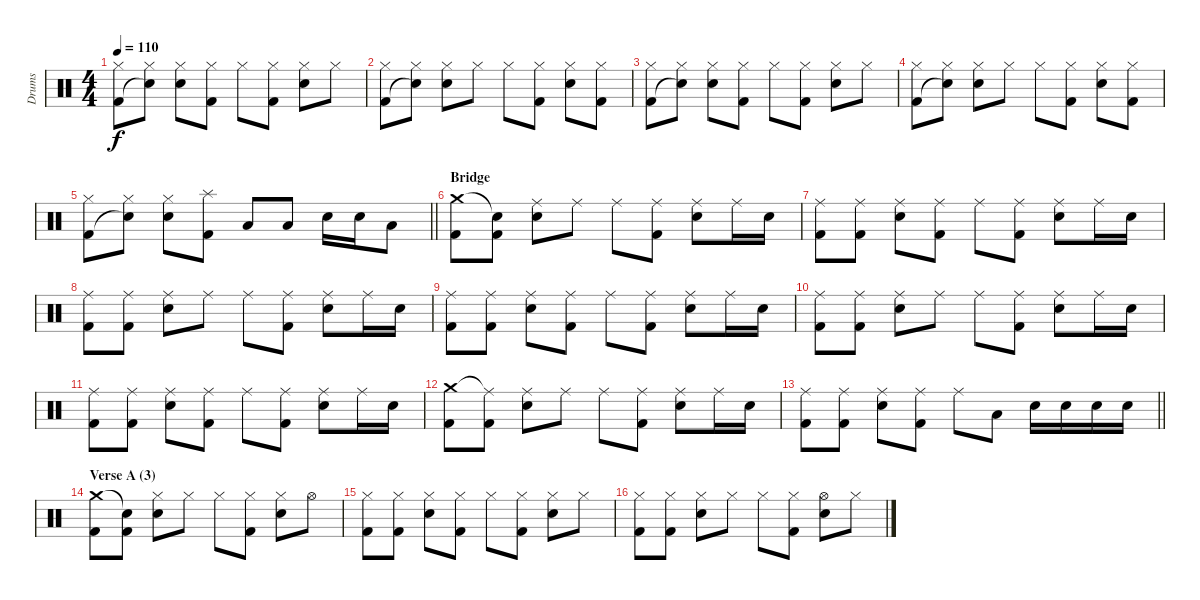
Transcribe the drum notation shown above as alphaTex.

\track ("Drums" "Drums") {instrument percussion}
\staff {score}
\articulation defaults
\ts (4 4)
\tempo 110
\clef neutral
\ks c
("Hi-Hat (closed)" "Kick (hit) 2").8{dy f} ("Hi-Hat (closed)" "Snare (hit)"{t}).8 ("Hi-Hat (closed)" "Electric Snare (hit)").8 ("Hi-Hat (closed)" "Kick (hit) 2").8 "Hi-Hat (closed)".8 ("Hi-Hat (closed)" "Kick (hit) 2").8 ("Hi-Hat (closed)" "Electric Snare (hit)").8 "Hi-Hat (closed)".8 |
("Hi-Hat (closed)" "Kick (hit) 2").8 ("Hi-Hat (closed)" "Snare (hit)"{t}).8 ("Hi-Hat (closed)" "Electric Snare (hit)").8 "Hi-Hat (closed)".8 "Hi-Hat (closed)".8 ("Hi-Hat (closed)" "Kick (hit) 2").8 ("Hi-Hat (closed)" "Electric Snare (hit)").8 ("Hi-Hat (closed)" "Kick (hit) 2").8 |
("Hi-Hat (closed)" "Kick (hit) 2").8 ("Hi-Hat (closed)" "Snare (hit)"{t}).8 ("Hi-Hat (closed)" "Electric Snare (hit)").8 ("Hi-Hat (closed)" "Kick (hit) 2").8 "Hi-Hat (closed)".8 ("Hi-Hat (closed)" "Kick (hit) 2").8 ("Hi-Hat (closed)" "Electric Snare (hit)").8 "Hi-Hat (closed)".8 |
("Hi-Hat (closed)" "Kick (hit) 2").8 ("Hi-Hat (closed)" "Snare (hit)"{t}).8 ("Hi-Hat (closed)" "Electric Snare (hit)").8 "Hi-Hat (closed)".8 "Hi-Hat (closed)".8 ("Hi-Hat (closed)" "Kick (hit) 2").8 ("Hi-Hat (closed)" "Electric Snare (hit)").8 ("Hi-Hat (closed)" "Kick (hit) 2").8 |
\barLineRight lightlight
("Hi-Hat (closed)" "Kick (hit) 2").8 ("Hi-Hat (closed)" "Snare (hit)"{t}).8 ("Hi-Hat (closed)" "Electric Snare (hit)").8 ("Splash (hit)" "Kick (hit) 2").8 "Low Floor Tom (hit)".8 "Low Floor Tom (hit)".8 "Electric Snare (hit)".16 "Electric Snare (hit)".16 "Low Floor Tom (hit)".8 |
\section ("" "Bridge")
("Crash medium (hit)" "Kick (hit) 2").8 ("Snare (hit)"{t} "Kick (hit) 2").8 ("Ride (middle)" "Electric Snare (hit)").8 "Ride (middle)".8 "Ride (middle)".8 ("Ride (middle)" "Kick (hit) 2").8 ("Ride (middle)" "Electric Snare (hit)").8 "Ride (middle)".16 "Electric Snare (hit)".16 |
("Ride (middle)" "Kick (hit) 2").8 ("Ride (middle)" "Kick (hit) 2").8 ("Ride (middle)" "Electric Snare (hit)").8 ("Ride (middle)" "Kick (hit) 2").8 "Ride (middle)".8 ("Ride (middle)" "Kick (hit) 2").8 ("Ride (middle)" "Electric Snare (hit)").8 "Ride (middle)".16 "Electric Snare (hit)".16 |
("Ride (middle)" "Kick (hit) 2").8 ("Ride (middle)" "Kick (hit) 2").8 ("Ride (middle)" "Electric Snare (hit)").8 "Ride (middle)".8 "Ride (middle)".8 ("Ride (middle)" "Kick (hit) 2").8 ("Ride (middle)" "Electric Snare (hit)").8 "Ride (middle)".16 "Electric Snare (hit)".16 |
("Ride (middle)" "Kick (hit) 2").8 ("Ride (middle)" "Kick (hit) 2").8 ("Ride (middle)" "Electric Snare (hit)").8 ("Ride (middle)" "Kick (hit) 2").8 "Ride (middle)".8 ("Ride (middle)" "Kick (hit) 2").8 ("Ride (middle)" "Electric Snare (hit)").8 "Ride (middle)".16 "Electric Snare (hit)".16 |
("Ride (middle)" "Kick (hit) 2").8 ("Ride (middle)" "Kick (hit) 2").8 ("Ride (middle)" "Electric Snare (hit)").8 "Ride (middle)".8 "Ride (middle)".8 ("Ride (middle)" "Kick (hit) 2").8 ("Ride (middle)" "Electric Snare (hit)").8 "Ride (middle)".16 "Electric Snare (hit)".16 |
("Ride (middle)" "Kick (hit) 2").8 ("Ride (middle)" "Kick (hit) 2").8 ("Ride (middle)" "Electric Snare (hit)").8 ("Ride (middle)" "Kick (hit) 2").8 "Ride (middle)".8 ("Ride (middle)" "Kick (hit) 2").8 ("Ride (middle)" "Electric Snare (hit)").8 "Ride (middle)".16 "Electric Snare (hit)".16 |
("Crash medium (hit)" "Kick (hit) 2").8 ("Ride (middle)"{t} "Kick (hit) 2").8 ("Ride (middle)" "Electric Snare (hit)").8 "Ride (middle)".8 "Ride (middle)".8 ("Ride (middle)" "Kick (hit) 2").8 ("Ride (middle)" "Electric Snare (hit)").8 "Ride (middle)".16 "Electric Snare (hit)".16 |
\barLineRight lightlight
("Ride (middle)" "Kick (hit) 2").8 ("Ride (middle)" "Kick (hit) 2").8 ("Ride (middle)" "Electric Snare (hit)").8 ("Ride (middle)" "Kick (hit) 2").8 "Ride (middle)".8 "Low Floor Tom (hit)".8 "Electric Snare (hit)".16 "Electric Snare (hit)".16 "Electric Snare (hit)".16 "Electric Snare (hit)".16 |
\section ("" "Verse A (3)")
("Crash medium (hit)" "Kick (hit) 2").8 ("Snare (hit)"{t} "Kick (hit) 2").8 ("Hi-Hat (closed)" "Electric Snare (hit)").8 "Hi-Hat (closed)".8 "Hi-Hat (closed)".8 ("Hi-Hat (closed)" "Kick (hit) 2").8 ("Hi-Hat (closed)" "Electric Snare (hit)").8 "Hi-Hat (open)".8 |
("Hi-Hat (closed)" "Kick (hit) 2").8 ("Hi-Hat (closed)" "Kick (hit) 2").8 ("Hi-Hat (closed)" "Electric Snare (hit)").8 ("Hi-Hat (closed)" "Kick (hit) 2").8 "Hi-Hat (closed)".8 ("Hi-Hat (closed)" "Kick (hit) 2").8 ("Hi-Hat (closed)" "Electric Snare (hit)").8 "Hi-Hat (closed)".8 |
("Hi-Hat (closed)" "Kick (hit) 2").8 ("Hi-Hat (closed)" "Kick (hit) 2").8 ("Hi-Hat (closed)" "Electric Snare (hit)").8 "Hi-Hat (closed)".8 "Hi-Hat (closed)".8 ("Hi-Hat (closed)" "Kick (hit) 2").8 ("Hi-Hat (open)" "Electric Snare (hit)").8 "Hi-Hat (closed)".8
